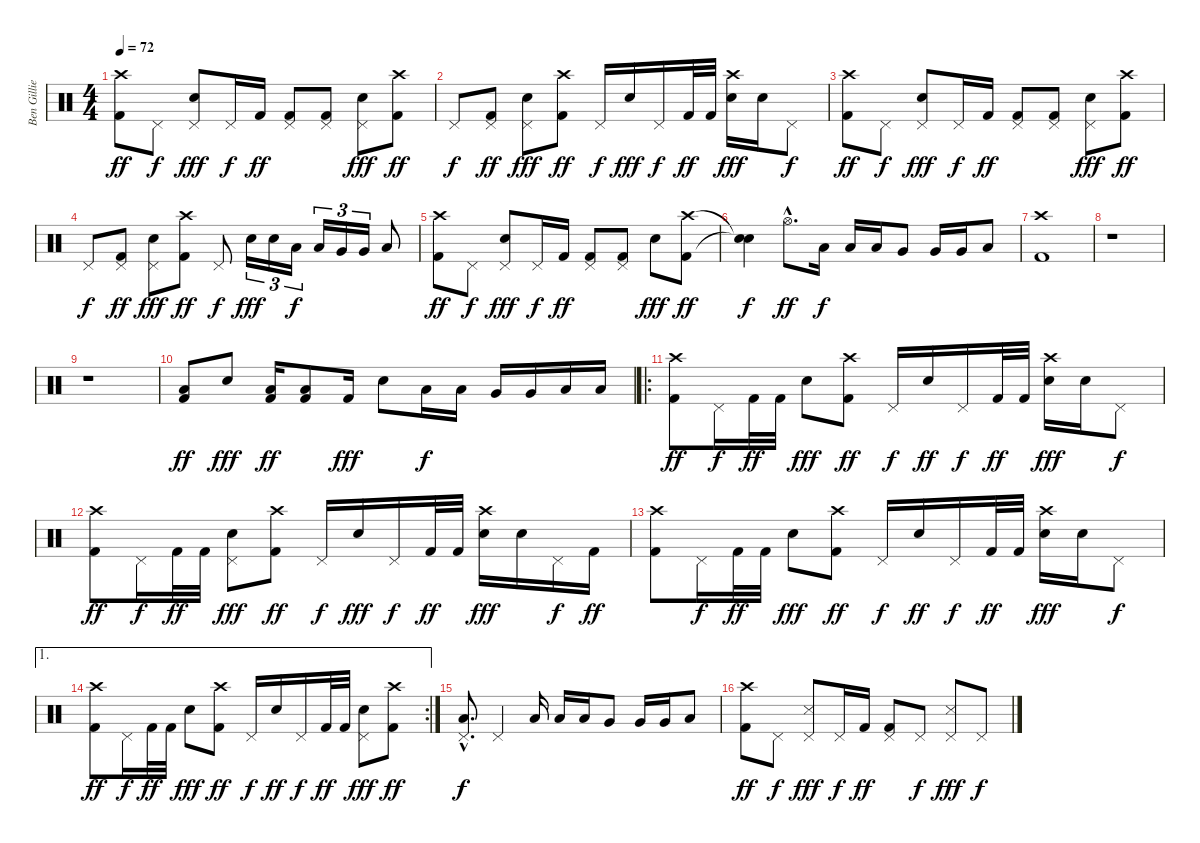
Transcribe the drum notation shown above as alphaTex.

\track ("Ben Gillies" "Ben Gillie") {instrument percussion}
\staff {score}
\articulation defaults
\ts (4 4)
\tempo 72
\clef neutral
\ks c
("Crash high (hit)" "Kick (hit) 2").8{dy ff} "Pedal Hi-Hat (hit)".8{dy f} ("Pedal Hi-Hat (hit)" "Electric Snare (hit)").8{dy fff} "Pedal Hi-Hat (hit)".16{dy f} "Kick (hit) 2".16{dy ff} ("Pedal Hi-Hat (hit)" "Kick (hit) 2").8 ("Pedal Hi-Hat (hit)" "Kick (hit) 2").8 ("Pedal Hi-Hat (hit)" "Electric Snare (hit)").8{dy fff} ("Crash high (hit)" "Kick (hit) 2").8{dy ff} |
"Pedal Hi-Hat (hit)".8{dy f} ("Pedal Hi-Hat (hit)" "Kick (hit) 2").8{dy ff} ("Pedal Hi-Hat (hit)" "Electric Snare (hit)").8{dy fff} ("Crash high (hit)" "Kick (hit) 2").8{dy ff} "Pedal Hi-Hat (hit)".16{dy f} "Electric Snare (hit)".16{dy fff} "Pedal Hi-Hat (hit)".16{dy f} "Kick (hit) 2".32{dy ff} "Kick (hit) 2".32 ("Crash high (hit)" "Electric Snare (hit)").16{dy fff} "Electric Snare (hit)".16 "Pedal Hi-Hat (hit)".8{dy f} |
("Crash high (hit)" "Kick (hit) 2").8{dy ff} "Pedal Hi-Hat (hit)".8{dy f} ("Pedal Hi-Hat (hit)" "Electric Snare (hit)").8{dy fff} "Pedal Hi-Hat (hit)".16{dy f} "Kick (hit) 2".16{dy ff} ("Pedal Hi-Hat (hit)" "Kick (hit) 2").8 ("Pedal Hi-Hat (hit)" "Kick (hit) 2").8 ("Pedal Hi-Hat (hit)" "Electric Snare (hit)").8{dy fff} ("Crash high (hit)" "Kick (hit) 2").8{dy ff} |
"Pedal Hi-Hat (hit)".8{dy f} ("Pedal Hi-Hat (hit)" "Kick (hit) 2").8{dy ff} ("Pedal Hi-Hat (hit)" "Electric Snare (hit)").8{dy fff} ("Crash high (hit)" "Kick (hit) 2").8{dy ff} "Pedal Hi-Hat (hit)".8{dy f} "Electric Snare (hit)".16{tu (3 2) dy fff} "Electric Snare (hit)".16{tu (3 2)} "Low Tom (hit)".16{tu (3 2) dy f} "Low Tom (hit)".16{tu (3 2)} "Very Low Tom (hit)".16{tu (3 2)} "Very Low Tom (hit)".16{tu (3 2)} "Low Floor Tom (hit)".8 |
("Crash high (hit)" "Kick (hit) 2").8{dy ff} "Pedal Hi-Hat (hit)".8{dy f} ("Pedal Hi-Hat (hit)" "Electric Snare (hit)").8{dy fff} "Pedal Hi-Hat (hit)".16{dy f} "Kick (hit) 2".16{dy ff} ("Pedal Hi-Hat (hit)" "Kick (hit) 2").8 ("Pedal Hi-Hat (hit)" "Kick (hit) 2").8 "Electric Snare (hit)".8{dy fff} ("Crash high (hit)" "Kick (hit) 2").8{dy ff} |
("Snare (hit)"{t} "Snare (hit)"{t}).4{dy f} "Hi-Hat (open)"{hac}.8{d dy ff} "Low Tom (hit)".16{dy f} "Low Tom (hit)".16 "Low Tom (hit)".16 "Very Low Tom (hit)".8 "Very Low Tom (hit)".16 "Very Low Tom (hit)".16 "Low Floor Tom (hit)".8 |
("Crash high (hit)" "Kick (hit) 2").1 |
r.1 |
r.1 |
("Low Floor Tom (hit)" "Kick (hit) 2").8{dy ff} "Electric Snare (hit)".8{dy fff} ("Low Floor Tom (hit)" "Kick (hit) 2").16{dy ff} ("Low Floor Tom (hit)" "Kick (hit) 2").8 "Kick (hit) 2".16{dy fff} "Electric Snare (hit)".8 "Low Tom (hit)".16{dy f} "Low Tom (hit)".16 "Very Low Tom (hit)".16 "Very Low Tom (hit)".16 "Low Floor Tom (hit)".16 "Low Floor Tom (hit)".16 |
\ro
("Crash high (hit)" "Kick (hit) 2").8{dy ff} "Pedal Hi-Hat (hit)".16{dy f} "Kick (hit) 2".32{dy ff} "Kick (hit) 2".32 "Electric Snare (hit)".8{dy fff} ("Crash high (hit)" "Kick (hit) 2").8{dy ff} "Pedal Hi-Hat (hit)".16{dy f} "Electric Snare (hit)".16{dy ff} "Pedal Hi-Hat (hit)".16{dy f} "Kick (hit) 2".32{dy ff} "Kick (hit) 2".32 ("Crash high (hit)" "Electric Snare (hit)").16{dy fff} "Electric Snare (hit)".16 "Pedal Hi-Hat (hit)".8{dy f} |
("Crash high (hit)" "Kick (hit) 2").8{dy ff} "Pedal Hi-Hat (hit)".16{dy f} "Kick (hit) 2".32{dy ff} "Kick (hit) 2".32 ("Pedal Hi-Hat (hit)" "Electric Snare (hit)").8{dy fff} ("Crash high (hit)" "Kick (hit) 2").8{dy ff} "Pedal Hi-Hat (hit)".16{dy f} "Electric Snare (hit)".16{dy fff} "Pedal Hi-Hat (hit)".16{dy f} "Kick (hit) 2".32{dy ff} "Kick (hit) 2".32 ("Crash high (hit)" "Electric Snare (hit)").16{dy fff} "Electric Snare (hit)".16 "Pedal Hi-Hat (hit)".16{dy f} "Kick (hit) 2".16{dy ff} |
("Crash high (hit)" "Kick (hit) 2").8 "Pedal Hi-Hat (hit)".16{dy f} "Kick (hit) 2".32{dy ff} "Kick (hit) 2".32 "Electric Snare (hit)".8{dy fff} ("Crash high (hit)" "Kick (hit) 2").8{dy ff} "Pedal Hi-Hat (hit)".16{dy f} "Electric Snare (hit)".16{dy ff} "Pedal Hi-Hat (hit)".16{dy f} "Kick (hit) 2".32{dy ff} "Kick (hit) 2".32 ("Crash high (hit)" "Electric Snare (hit)").16{dy fff} "Electric Snare (hit)".16 "Pedal Hi-Hat (hit)".8{dy f} |
\ae 1
\rc 2
("Crash high (hit)" "Kick (hit) 2").8{dy ff} "Pedal Hi-Hat (hit)".16{dy f} "Kick (hit) 2".32{dy ff} "Kick (hit) 2".32 "Electric Snare (hit)".8{dy fff} ("Crash high (hit)" "Kick (hit) 2").8{dy ff} "Pedal Hi-Hat (hit)".16{dy f} "Electric Snare (hit)".16{dy ff} "Pedal Hi-Hat (hit)".16{dy f} "Kick (hit) 2".32{dy ff} "Kick (hit) 2".32 ("Pedal Hi-Hat (hit)" "Electric Snare (hit)").8{dy fff} ("Crash high (hit)" "Kick (hit) 2").8{dy ff} |
("Low Floor Tom (hit)"{hac} "Pedal Hi-Hat (hit)"{hac}).8{d dy f} "Pedal Hi-Hat (hit)".4 "Low Tom (hit)".16 "Low Tom (hit)".16 "Low Tom (hit)".16 "Very Low Tom (hit)".8 "Very Low Tom (hit)".16 "Very Low Tom (hit)".16 "Low Floor Tom (hit)".8 |
("Crash high (hit)" "Kick (hit) 2").8{dy ff} "Pedal Hi-Hat (hit)".8{dy f} ("Pedal Hi-Hat (hit)" "Snare (side stick) 3").8{dy fff} "Pedal Hi-Hat (hit)".16{dy f} "Kick (hit) 2".16{dy ff} ("Pedal Hi-Hat (hit)" "Kick (hit) 2").8 "Pedal Hi-Hat (hit)".8{dy f} ("Pedal Hi-Hat (hit)" "Snare (side stick) 3").8{dy fff} "Pedal Hi-Hat (hit)".8{dy f}
